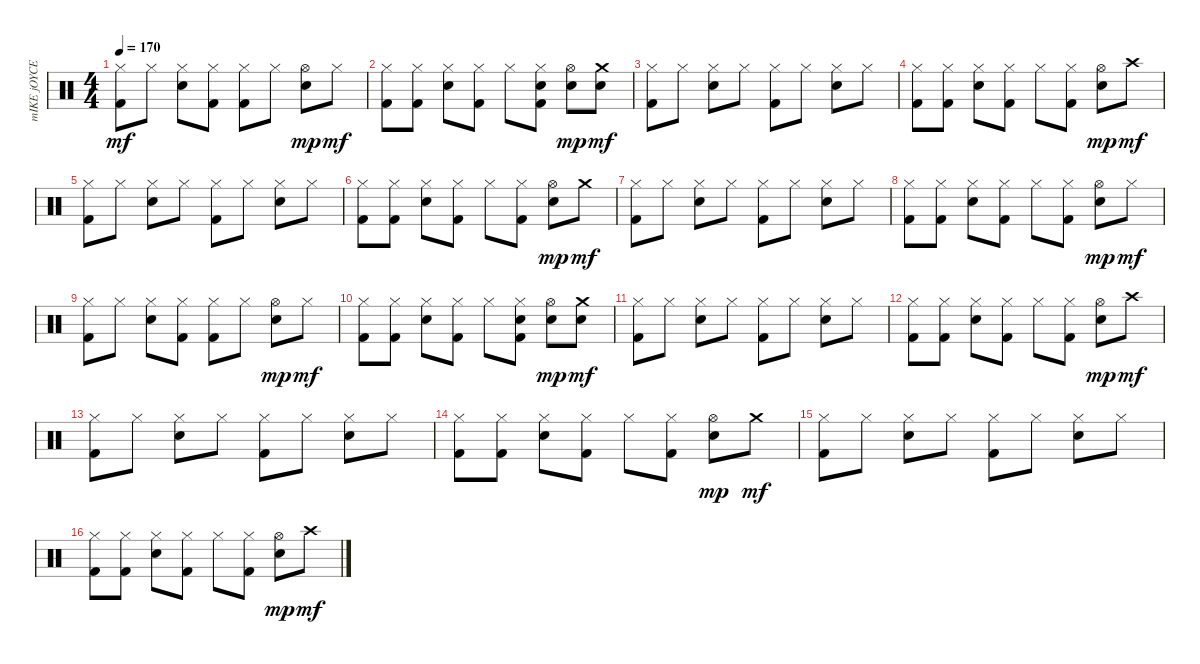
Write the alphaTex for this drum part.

\track ("mIKE jOYCE" "mIKE jOYCE") {instrument percussion}
\staff {score}
\articulation defaults
\ts (4 4)
\tempo 170
\clef neutral
\ks c
("Hi-Hat (closed)" "Kick (hit) 2").8{dy mf} "Hi-Hat (closed)".8 ("Hi-Hat (closed)" "Electric Snare (hit)").8 ("Hi-Hat (closed)" "Kick (hit) 2").8 ("Hi-Hat (closed)" "Kick (hit) 2").8 "Hi-Hat (closed)".8 ("Hi-Hat (open)" "Electric Snare (hit)").8{dy mp} "Hi-Hat (closed)".8{dy mf} |
("Hi-Hat (closed)" "Kick (hit) 2").8 ("Hi-Hat (closed)" "Kick (hit) 2").8 ("Hi-Hat (closed)" "Electric Snare (hit)").8 ("Hi-Hat (closed)" "Kick (hit) 2").8 "Hi-Hat (closed)".8 ("Hi-Hat (closed)" "Electric Snare (hit)" "Kick (hit) 2").8 ("Hi-Hat (open)" "Electric Snare (hit)").8{dy mp} ("Crash medium (hit)" "Electric Snare (hit)").8{dy mf} |
("Hi-Hat (closed)" "Kick (hit) 2").8 "Hi-Hat (closed)".8 ("Hi-Hat (closed)" "Electric Snare (hit)").8 "Hi-Hat (closed)".8 ("Hi-Hat (closed)" "Kick (hit) 2").8 "Hi-Hat (closed)".8 ("Hi-Hat (closed)" "Electric Snare (hit)").8 "Hi-Hat (closed)".8 |
("Hi-Hat (closed)" "Kick (hit) 2").8 ("Hi-Hat (closed)" "Kick (hit) 2").8 ("Hi-Hat (closed)" "Electric Snare (hit)").8 ("Hi-Hat (closed)" "Kick (hit) 2").8 "Hi-Hat (closed)".8 ("Hi-Hat (closed)" "Kick (hit) 2").8 ("Hi-Hat (open)" "Electric Snare (hit)").8{dy mp} "Crash high (hit)".8{dy mf} |
("Hi-Hat (closed)" "Kick (hit) 2").8 "Hi-Hat (closed)".8 ("Hi-Hat (closed)" "Electric Snare (hit)").8 "Hi-Hat (closed)".8 ("Hi-Hat (closed)" "Kick (hit) 2").8 "Hi-Hat (closed)".8 ("Hi-Hat (closed)" "Electric Snare (hit)").8 "Hi-Hat (closed)".8 |
("Hi-Hat (closed)" "Kick (hit) 2").8 ("Hi-Hat (closed)" "Kick (hit) 2").8 ("Hi-Hat (closed)" "Electric Snare (hit)").8 ("Hi-Hat (closed)" "Kick (hit) 2").8 "Hi-Hat (closed)".8 ("Hi-Hat (closed)" "Kick (hit) 2").8 ("Hi-Hat (open)" "Electric Snare (hit)").8{dy mp} "Crash medium (hit)".8{dy mf} |
("Hi-Hat (closed)" "Kick (hit) 2").8 "Hi-Hat (closed)".8 ("Hi-Hat (closed)" "Electric Snare (hit)").8 "Hi-Hat (closed)".8 ("Hi-Hat (closed)" "Kick (hit) 2").8 "Hi-Hat (closed)".8 ("Hi-Hat (closed)" "Electric Snare (hit)").8 "Hi-Hat (closed)".8 |
("Hi-Hat (closed)" "Kick (hit) 2").8 ("Hi-Hat (closed)" "Kick (hit) 2").8 ("Hi-Hat (closed)" "Electric Snare (hit)").8 ("Hi-Hat (closed)" "Kick (hit) 2").8 "Hi-Hat (closed)".8 ("Hi-Hat (closed)" "Kick (hit) 2").8 ("Hi-Hat (open)" "Electric Snare (hit)").8{dy mp} "Hi-Hat (closed)".8{dy mf} |
("Hi-Hat (closed)" "Kick (hit) 2").8 "Hi-Hat (closed)".8 ("Hi-Hat (closed)" "Electric Snare (hit)").8 ("Hi-Hat (closed)" "Kick (hit) 2").8 ("Hi-Hat (closed)" "Kick (hit) 2").8 "Hi-Hat (closed)".8 ("Hi-Hat (open)" "Electric Snare (hit)").8{dy mp} "Hi-Hat (closed)".8{dy mf} |
("Hi-Hat (closed)" "Kick (hit) 2").8 ("Hi-Hat (closed)" "Kick (hit) 2").8 ("Hi-Hat (closed)" "Electric Snare (hit)").8 ("Hi-Hat (closed)" "Kick (hit) 2").8 "Hi-Hat (closed)".8 ("Hi-Hat (closed)" "Electric Snare (hit)" "Kick (hit) 2").8 ("Hi-Hat (open)" "Electric Snare (hit)").8{dy mp} ("Crash medium (hit)" "Electric Snare (hit)").8{dy mf} |
("Hi-Hat (closed)" "Kick (hit) 2").8 "Hi-Hat (closed)".8 ("Hi-Hat (closed)" "Electric Snare (hit)").8 "Hi-Hat (closed)".8 ("Hi-Hat (closed)" "Kick (hit) 2").8 "Hi-Hat (closed)".8 ("Hi-Hat (closed)" "Electric Snare (hit)").8 "Hi-Hat (closed)".8 |
("Hi-Hat (closed)" "Kick (hit) 2").8 ("Hi-Hat (closed)" "Kick (hit) 2").8 ("Hi-Hat (closed)" "Electric Snare (hit)").8 ("Hi-Hat (closed)" "Kick (hit) 2").8 "Hi-Hat (closed)".8 ("Hi-Hat (closed)" "Kick (hit) 2").8 ("Hi-Hat (open)" "Electric Snare (hit)").8{dy mp} "Crash high (hit)".8{dy mf} |
("Hi-Hat (closed)" "Kick (hit) 2").8 "Hi-Hat (closed)".8 ("Hi-Hat (closed)" "Electric Snare (hit)").8 "Hi-Hat (closed)".8 ("Hi-Hat (closed)" "Kick (hit) 2").8 "Hi-Hat (closed)".8 ("Hi-Hat (closed)" "Electric Snare (hit)").8 "Hi-Hat (closed)".8 |
("Hi-Hat (closed)" "Kick (hit) 2").8 ("Hi-Hat (closed)" "Kick (hit) 2").8 ("Hi-Hat (closed)" "Electric Snare (hit)").8 ("Hi-Hat (closed)" "Kick (hit) 2").8 "Hi-Hat (closed)".8 ("Hi-Hat (closed)" "Kick (hit) 2").8 ("Hi-Hat (open)" "Electric Snare (hit)").8{dy mp} "Crash medium (hit)".8{dy mf} |
("Hi-Hat (closed)" "Kick (hit) 2").8 "Hi-Hat (closed)".8 ("Hi-Hat (closed)" "Electric Snare (hit)").8 "Hi-Hat (closed)".8 ("Hi-Hat (closed)" "Kick (hit) 2").8 "Hi-Hat (closed)".8 ("Hi-Hat (closed)" "Electric Snare (hit)").8 "Hi-Hat (closed)".8 |
("Hi-Hat (closed)" "Kick (hit) 2").8 ("Hi-Hat (closed)" "Kick (hit) 2").8 ("Hi-Hat (closed)" "Electric Snare (hit)").8 ("Hi-Hat (closed)" "Kick (hit) 2").8 "Hi-Hat (closed)".8 ("Hi-Hat (closed)" "Kick (hit) 2").8 ("Hi-Hat (open)" "Electric Snare (hit)").8{dy mp} "Crash high (hit)".8{dy mf}
